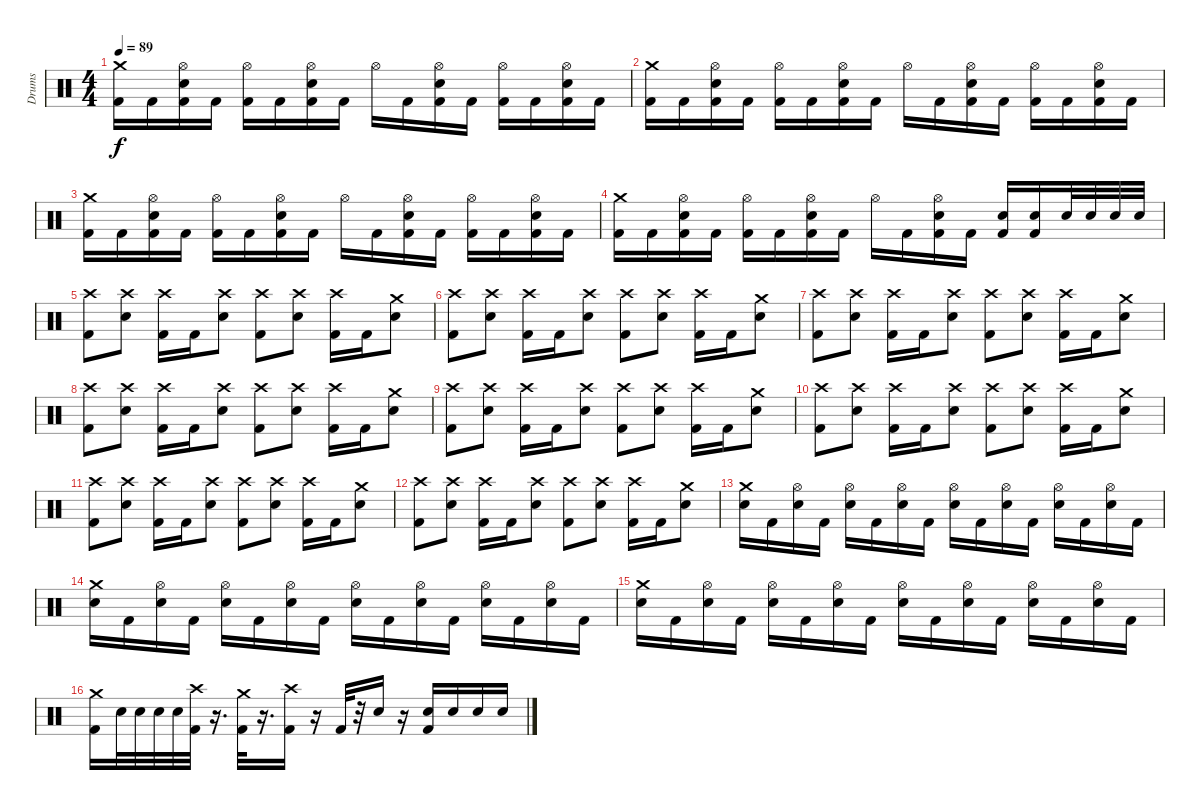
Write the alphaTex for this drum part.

\track ("Drums" "Drums") {instrument percussion}
\staff {score}
\articulation defaults
\ts (4 4)
\tempo 89
\clef neutral
\ks c
("Crash medium (hit)" "Kick (hit) 2").16{dy f} "Kick (hit) 2".16 ("Hi-Hat (open)" "Electric Snare (hit)" "Kick (hit) 2").16 "Kick (hit) 2".16 ("Hi-Hat (open)" "Kick (hit) 2").16 "Kick (hit) 2".16 ("Hi-Hat (open)" "Electric Snare (hit)" "Kick (hit) 2").16 "Kick (hit) 2".16 "Hi-Hat (open)".16 "Kick (hit) 2".16 ("Hi-Hat (open)" "Electric Snare (hit)" "Kick (hit) 2").16 "Kick (hit) 2".16 ("Hi-Hat (open)" "Kick (hit) 2").16 "Kick (hit) 2".16 ("Hi-Hat (open)" "Electric Snare (hit)" "Kick (hit) 2").16 "Kick (hit) 2".16 |
("Crash medium (hit)" "Kick (hit) 2").16 "Kick (hit) 2".16 ("Hi-Hat (open)" "Electric Snare (hit)" "Kick (hit) 2").16 "Kick (hit) 2".16 ("Hi-Hat (open)" "Kick (hit) 2").16 "Kick (hit) 2".16 ("Hi-Hat (open)" "Electric Snare (hit)" "Kick (hit) 2").16 "Kick (hit) 2".16 "Hi-Hat (open)".16 "Kick (hit) 2".16 ("Hi-Hat (open)" "Electric Snare (hit)" "Kick (hit) 2").16 "Kick (hit) 2".16 ("Hi-Hat (open)" "Kick (hit) 2").16 "Kick (hit) 2".16 ("Hi-Hat (open)" "Electric Snare (hit)" "Kick (hit) 2").16 "Kick (hit) 2".16 |
("Crash medium (hit)" "Kick (hit) 2").16 "Kick (hit) 2".16 ("Hi-Hat (open)" "Electric Snare (hit)" "Kick (hit) 2").16 "Kick (hit) 2".16 ("Hi-Hat (open)" "Kick (hit) 2").16 "Kick (hit) 2".16 ("Hi-Hat (open)" "Electric Snare (hit)" "Kick (hit) 2").16 "Kick (hit) 2".16 "Hi-Hat (open)".16 "Kick (hit) 2".16 ("Hi-Hat (open)" "Electric Snare (hit)" "Kick (hit) 2").16 "Kick (hit) 2".16 ("Hi-Hat (open)" "Kick (hit) 2").16 "Kick (hit) 2".16 ("Hi-Hat (open)" "Electric Snare (hit)" "Kick (hit) 2").16 "Kick (hit) 2".16 |
("Crash medium (hit)" "Kick (hit) 2").16 "Kick (hit) 2".16 ("Hi-Hat (open)" "Electric Snare (hit)" "Kick (hit) 2").16 "Kick (hit) 2".16 ("Hi-Hat (open)" "Kick (hit) 2").16 "Kick (hit) 2".16 ("Hi-Hat (open)" "Electric Snare (hit)" "Kick (hit) 2").16 "Kick (hit) 2".16 "Hi-Hat (open)".16 "Kick (hit) 2".16 ("Hi-Hat (open)" "Electric Snare (hit)" "Kick (hit) 2").16 "Kick (hit) 2".16 ("Kick (hit) 2" "Electric Snare (hit)").16 ("Kick (hit) 2" "Electric Snare (hit)").16 "Electric Snare (hit)".32 "Electric Snare (hit)".32 "Electric Snare (hit)".32 "Electric Snare (hit)".32 |
("Kick (hit) 2" "Crash high (hit)").8 ("Electric Snare (hit)" "Crash high (hit)").8 ("Kick (hit) 2" "Crash high (hit)").16 "Kick (hit) 2".16 ("Electric Snare (hit)" "Crash high (hit)").8 ("Kick (hit) 2" "Crash high (hit)").8 ("Electric Snare (hit)" "Crash high (hit)").8 ("Kick (hit) 2" "Crash high (hit)").16 "Kick (hit) 2".16 ("Electric Snare (hit)" "Crash medium (hit)").8 |
("Kick (hit) 2" "Crash high (hit)").8 ("Electric Snare (hit)" "Crash high (hit)").8 ("Kick (hit) 2" "Crash high (hit)").16 "Kick (hit) 2".16 ("Electric Snare (hit)" "Crash high (hit)").8 ("Kick (hit) 2" "Crash high (hit)").8 ("Electric Snare (hit)" "Crash high (hit)").8 ("Kick (hit) 2" "Crash high (hit)").16 "Kick (hit) 2".16 ("Electric Snare (hit)" "Crash medium (hit)").8 |
("Kick (hit) 2" "Crash high (hit)").8 ("Electric Snare (hit)" "Crash high (hit)").8 ("Kick (hit) 2" "Crash high (hit)").16 "Kick (hit) 2".16 ("Electric Snare (hit)" "Crash high (hit)").8 ("Kick (hit) 2" "Crash high (hit)").8 ("Electric Snare (hit)" "Crash high (hit)").8 ("Kick (hit) 2" "Crash high (hit)").16 "Kick (hit) 2".16 ("Electric Snare (hit)" "Crash medium (hit)").8 |
("Kick (hit) 2" "Crash high (hit)").8 ("Electric Snare (hit)" "Crash high (hit)").8 ("Kick (hit) 2" "Crash high (hit)").16 "Kick (hit) 2".16 ("Electric Snare (hit)" "Crash high (hit)").8 ("Kick (hit) 2" "Crash high (hit)").8 ("Electric Snare (hit)" "Crash high (hit)").8 ("Kick (hit) 2" "Crash high (hit)").16 "Kick (hit) 2".16 ("Electric Snare (hit)" "Crash medium (hit)").8 |
("Kick (hit) 2" "Crash high (hit)").8 ("Electric Snare (hit)" "Crash high (hit)").8 ("Kick (hit) 2" "Crash high (hit)").16 "Kick (hit) 2".16 ("Electric Snare (hit)" "Crash high (hit)").8 ("Kick (hit) 2" "Crash high (hit)").8 ("Electric Snare (hit)" "Crash high (hit)").8 ("Kick (hit) 2" "Crash high (hit)").16 "Kick (hit) 2".16 ("Electric Snare (hit)" "Crash medium (hit)").8 |
("Kick (hit) 2" "Crash high (hit)").8 ("Electric Snare (hit)" "Crash high (hit)").8 ("Kick (hit) 2" "Crash high (hit)").16 "Kick (hit) 2".16 ("Electric Snare (hit)" "Crash high (hit)").8 ("Kick (hit) 2" "Crash high (hit)").8 ("Electric Snare (hit)" "Crash high (hit)").8 ("Kick (hit) 2" "Crash high (hit)").16 "Kick (hit) 2".16 ("Electric Snare (hit)" "Crash medium (hit)").8 |
("Kick (hit) 2" "Crash high (hit)").8 ("Electric Snare (hit)" "Crash high (hit)").8 ("Kick (hit) 2" "Crash high (hit)").16 "Kick (hit) 2".16 ("Electric Snare (hit)" "Crash high (hit)").8 ("Kick (hit) 2" "Crash high (hit)").8 ("Electric Snare (hit)" "Crash high (hit)").8 ("Kick (hit) 2" "Crash high (hit)").16 "Kick (hit) 2".16 ("Electric Snare (hit)" "Crash medium (hit)").8 |
("Kick (hit) 2" "Crash high (hit)").8 ("Electric Snare (hit)" "Crash high (hit)").8 ("Kick (hit) 2" "Crash high (hit)").16 "Kick (hit) 2".16 ("Electric Snare (hit)" "Crash high (hit)").8 ("Kick (hit) 2" "Crash high (hit)").8 ("Electric Snare (hit)" "Crash high (hit)").8 ("Kick (hit) 2" "Crash high (hit)").16 "Kick (hit) 2".16 ("Electric Snare (hit)" "Crash medium (hit)").8 |
("Electric Snare (hit)" "Crash medium (hit)").16 "Kick (hit) 2".16 ("Electric Snare (hit)" "Hi-Hat (open)").16 "Kick (hit) 2".16 ("Electric Snare (hit)" "Hi-Hat (open)").16 "Kick (hit) 2".16 ("Electric Snare (hit)" "Hi-Hat (open)").16 "Kick (hit) 2".16 ("Electric Snare (hit)" "Hi-Hat (open)").16 "Kick (hit) 2".16 ("Electric Snare (hit)" "Hi-Hat (open)").16 "Kick (hit) 2".16 ("Electric Snare (hit)" "Hi-Hat (open)").16 "Kick (hit) 2".16 ("Electric Snare (hit)" "Hi-Hat (open)").16 "Kick (hit) 2".16 |
("Electric Snare (hit)" "Crash medium (hit)").16 "Kick (hit) 2".16 ("Electric Snare (hit)" "Hi-Hat (open)").16 "Kick (hit) 2".16 ("Electric Snare (hit)" "Hi-Hat (open)").16 "Kick (hit) 2".16 ("Electric Snare (hit)" "Hi-Hat (open)").16 "Kick (hit) 2".16 ("Electric Snare (hit)" "Hi-Hat (open)").16 "Kick (hit) 2".16 ("Electric Snare (hit)" "Hi-Hat (open)").16 "Kick (hit) 2".16 ("Electric Snare (hit)" "Hi-Hat (open)").16 "Kick (hit) 2".16 ("Electric Snare (hit)" "Hi-Hat (open)").16 "Kick (hit) 2".16 |
("Electric Snare (hit)" "Crash medium (hit)").16 "Kick (hit) 2".16 ("Electric Snare (hit)" "Hi-Hat (open)").16 "Kick (hit) 2".16 ("Electric Snare (hit)" "Hi-Hat (open)").16 "Kick (hit) 2".16 ("Electric Snare (hit)" "Hi-Hat (open)").16 "Kick (hit) 2".16 ("Electric Snare (hit)" "Hi-Hat (open)").16 "Kick (hit) 2".16 ("Electric Snare (hit)" "Hi-Hat (open)").16 "Kick (hit) 2".16 ("Electric Snare (hit)" "Hi-Hat (open)").16 "Kick (hit) 2".16 ("Electric Snare (hit)" "Hi-Hat (open)").16 "Kick (hit) 2".16 |
("Kick (hit) 2" "Crash medium (hit)").16 "Electric Snare (hit)".32 "Electric Snare (hit)".32 "Electric Snare (hit)".32 "Electric Snare (hit)".32 ("Crash high (hit)" "Kick (hit) 2").32 r.16{d} ("Crash medium (hit)" "Kick (hit) 2").32 r.16{d} ("Crash high (hit)" "Kick (hit) 2").16 r.16 "Kick (hit) 2".32 r.32 "Electric Snare (hit)".16 r.16 ("Electric Snare (hit)" "Kick (hit) 2").16 "Electric Snare (hit)".16 "Electric Snare (hit)".16 "Electric Snare (hit)".16
